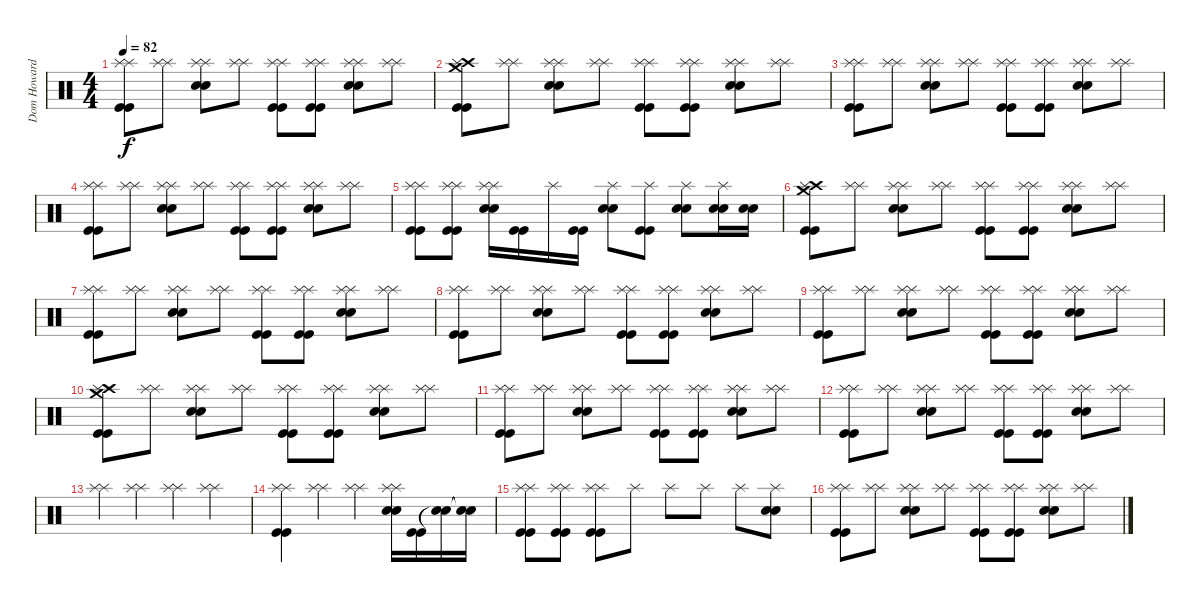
\track ("Dom Howard" "Dom Howard") {instrument percussion}
\staff {score}
\articulation defaults
\ts (4 4)
\tempo 82
\clef neutral
\ks c
("Splash (hit)" "Splash (hit)" "Kick (hit)" "Kick (hit)").8{dy f} ("Splash (hit)" "Splash (hit)").8 ("Splash (hit)" "Splash (hit)" "Electric Snare (hit)" "Electric Snare (hit)").8 ("Splash (hit)" "Splash (hit)").8 ("Splash (hit)" "Splash (hit)" "Kick (hit)" "Kick (hit)").8 ("Splash (hit)" "Splash (hit)" "Kick (hit)" "Kick (hit)").8 ("Splash (hit)" "Splash (hit)" "Electric Snare (hit)" "Electric Snare (hit)").8 ("Splash (hit)" "Splash (hit)").8 |
("Crash high (hit)" "Crash medium (hit)" "Splash (hit)" "Kick (hit)" "Kick (hit)").8 ("Splash (hit)" "Splash (hit)").8 ("Splash (hit)" "Splash (hit)" "Electric Snare (hit)" "Electric Snare (hit)").8 ("Splash (hit)" "Splash (hit)").8 ("Splash (hit)" "Splash (hit)" "Kick (hit)" "Kick (hit)").8 ("Splash (hit)" "Splash (hit)" "Kick (hit)" "Kick (hit)").8 ("Splash (hit)" "Splash (hit)" "Electric Snare (hit)" "Electric Snare (hit)").8 ("Splash (hit)" "Splash (hit)").8 |
("Splash (hit)" "Splash (hit)" "Kick (hit)" "Kick (hit)").8 ("Splash (hit)" "Splash (hit)").8 ("Splash (hit)" "Splash (hit)" "Electric Snare (hit)" "Electric Snare (hit)").8 ("Splash (hit)" "Splash (hit)").8 ("Splash (hit)" "Splash (hit)" "Kick (hit)" "Kick (hit)").8 ("Splash (hit)" "Splash (hit)" "Kick (hit)" "Kick (hit)").8 ("Splash (hit)" "Splash (hit)" "Electric Snare (hit)" "Electric Snare (hit)").8 ("Splash (hit)" "Splash (hit)").8 |
("Splash (hit)" "Splash (hit)" "Kick (hit)" "Kick (hit)").8 ("Splash (hit)" "Splash (hit)").8 ("Splash (hit)" "Splash (hit)" "Electric Snare (hit)" "Electric Snare (hit)").8 ("Splash (hit)" "Splash (hit)").8 ("Splash (hit)" "Splash (hit)" "Kick (hit)" "Kick (hit)").8 ("Splash (hit)" "Splash (hit)" "Kick (hit)" "Kick (hit)").8 ("Splash (hit)" "Splash (hit)" "Electric Snare (hit)" "Electric Snare (hit)").8 ("Splash (hit)" "Splash (hit)").8 |
("Splash (hit)" "Splash (hit)" "Kick (hit)" "Kick (hit)").8 ("Splash (hit)" "Splash (hit)" "Kick (hit)" "Kick (hit)").8 ("Splash (hit)" "Splash (hit)" "Electric Snare (hit)" "Electric Snare (hit)").16 ("Kick (hit)" "Kick (hit)").16 "Splash (hit)".16 ("Kick (hit)" "Kick (hit)").16 ("Splash (hit)" "Electric Snare (hit)" "Electric Snare (hit)").8 ("Splash (hit)" "Kick (hit)" "Kick (hit)").8 ("Splash (hit)" "Electric Snare (hit)" "Electric Snare (hit)").8 ("Splash (hit)" "Electric Snare (hit)" "Electric Snare (hit)").16 ("Electric Snare (hit)" "Electric Snare (hit)").16 |
("Crash high (hit)" "Crash medium (hit)" "Splash (hit)" "Kick (hit)" "Kick (hit)").8 ("Splash (hit)" "Splash (hit)").8 ("Splash (hit)" "Splash (hit)" "Electric Snare (hit)" "Electric Snare (hit)").8 ("Splash (hit)" "Splash (hit)").8 ("Splash (hit)" "Splash (hit)" "Kick (hit)" "Kick (hit)").8 ("Splash (hit)" "Splash (hit)" "Kick (hit)" "Kick (hit)").8 ("Splash (hit)" "Splash (hit)" "Electric Snare (hit)" "Electric Snare (hit)").8 ("Splash (hit)" "Splash (hit)").8 |
("Splash (hit)" "Splash (hit)" "Kick (hit)" "Kick (hit)").8 ("Splash (hit)" "Splash (hit)").8 ("Splash (hit)" "Splash (hit)" "Electric Snare (hit)" "Electric Snare (hit)").8 ("Splash (hit)" "Splash (hit)").8 ("Splash (hit)" "Splash (hit)" "Kick (hit)" "Kick (hit)").8 ("Splash (hit)" "Splash (hit)" "Kick (hit)" "Kick (hit)").8 ("Splash (hit)" "Splash (hit)" "Electric Snare (hit)" "Electric Snare (hit)").8 ("Splash (hit)" "Splash (hit)").8 |
("Splash (hit)" "Splash (hit)" "Kick (hit)" "Kick (hit)").8 ("Splash (hit)" "Splash (hit)").8 ("Splash (hit)" "Splash (hit)" "Electric Snare (hit)" "Electric Snare (hit)").8 ("Splash (hit)" "Splash (hit)").8 ("Splash (hit)" "Splash (hit)" "Kick (hit)" "Kick (hit)").8 ("Splash (hit)" "Splash (hit)" "Kick (hit)" "Kick (hit)").8 ("Splash (hit)" "Splash (hit)" "Electric Snare (hit)" "Electric Snare (hit)").8 ("Splash (hit)" "Splash (hit)").8 |
("Splash (hit)" "Splash (hit)" "Kick (hit)" "Kick (hit)").8 ("Splash (hit)" "Splash (hit)").8 ("Splash (hit)" "Splash (hit)" "Electric Snare (hit)" "Electric Snare (hit)").8 ("Splash (hit)" "Splash (hit)").8 ("Splash (hit)" "Splash (hit)" "Kick (hit)" "Kick (hit)").8 ("Splash (hit)" "Splash (hit)" "Kick (hit)" "Kick (hit)").8 ("Splash (hit)" "Splash (hit)" "Electric Snare (hit)" "Electric Snare (hit)").8 ("Splash (hit)" "Splash (hit)").8 |
("Crash high (hit)" "Crash medium (hit)" "Splash (hit)" "Kick (hit)" "Kick (hit)").8 ("Splash (hit)" "Splash (hit)").8 ("Splash (hit)" "Splash (hit)" "Electric Snare (hit)" "Electric Snare (hit)").8 ("Splash (hit)" "Splash (hit)").8 ("Splash (hit)" "Splash (hit)" "Kick (hit)" "Kick (hit)").8 ("Splash (hit)" "Splash (hit)" "Kick (hit)" "Kick (hit)").8 ("Splash (hit)" "Splash (hit)" "Electric Snare (hit)" "Electric Snare (hit)").8 ("Splash (hit)" "Splash (hit)").8 |
("Splash (hit)" "Splash (hit)" "Kick (hit)" "Kick (hit)").8 ("Splash (hit)" "Splash (hit)").8 ("Splash (hit)" "Splash (hit)" "Electric Snare (hit)" "Electric Snare (hit)").8 ("Splash (hit)" "Splash (hit)").8 ("Splash (hit)" "Splash (hit)" "Kick (hit)" "Kick (hit)").8 ("Splash (hit)" "Splash (hit)" "Kick (hit)" "Kick (hit)").8 ("Splash (hit)" "Splash (hit)" "Electric Snare (hit)" "Electric Snare (hit)").8 ("Splash (hit)" "Splash (hit)").8 |
("Splash (hit)" "Splash (hit)" "Kick (hit)" "Kick (hit)").8 ("Splash (hit)" "Splash (hit)").8 ("Splash (hit)" "Splash (hit)" "Electric Snare (hit)" "Electric Snare (hit)").8 ("Splash (hit)" "Splash (hit)").8 ("Splash (hit)" "Splash (hit)" "Kick (hit)" "Kick (hit)").8 ("Splash (hit)" "Splash (hit)" "Kick (hit)" "Kick (hit)").8 ("Splash (hit)" "Splash (hit)" "Electric Snare (hit)" "Electric Snare (hit)").8 ("Splash (hit)" "Splash (hit)").8 |
("Splash (hit)" "Splash (hit)").4 ("Splash (hit)" "Splash (hit)").4 ("Splash (hit)" "Splash (hit)").4 ("Splash (hit)" "Splash (hit)").4 |
("Splash (hit)" "Splash (hit)" "Kick (hit)" "Kick (hit)").4 ("Splash (hit)" "Splash (hit)").4 ("Splash (hit)" "Splash (hit)").4 ("Splash (hit)" "Splash (hit)" "Electric Snare (hit)" "Electric Snare (hit)").16 ("Kick (hit)" "Kick (hit)").16 ("Snare (hit)"{t} "Snare (hit)"{t}).16 ("Snare (hit)"{t} "Snare (hit)"{t}).16 |
("Splash (hit)" "Splash (hit)" "Kick (hit)" "Kick (hit)").8 ("Splash (hit)" "Splash (hit)" "Kick (hit)" "Kick (hit)").8 ("Splash (hit)" "Splash (hit)" "Kick (hit)" "Kick (hit)").8 "Splash (hit)".8 "Splash (hit)".8 "Splash (hit)".8 "Splash (hit)".8 ("Splash (hit)" "Electric Snare (hit)" "Electric Snare (hit)").8 |
("Splash (hit)" "Splash (hit)" "Kick (hit)" "Kick (hit)").8 ("Splash (hit)" "Splash (hit)").8 ("Splash (hit)" "Splash (hit)" "Electric Snare (hit)" "Electric Snare (hit)").8 ("Splash (hit)" "Splash (hit)").8 ("Splash (hit)" "Splash (hit)" "Kick (hit)" "Kick (hit)").8 ("Splash (hit)" "Splash (hit)" "Kick (hit)" "Kick (hit)").8 ("Splash (hit)" "Splash (hit)" "Electric Snare (hit)" "Electric Snare (hit)").8 ("Splash (hit)" "Splash (hit)").8
